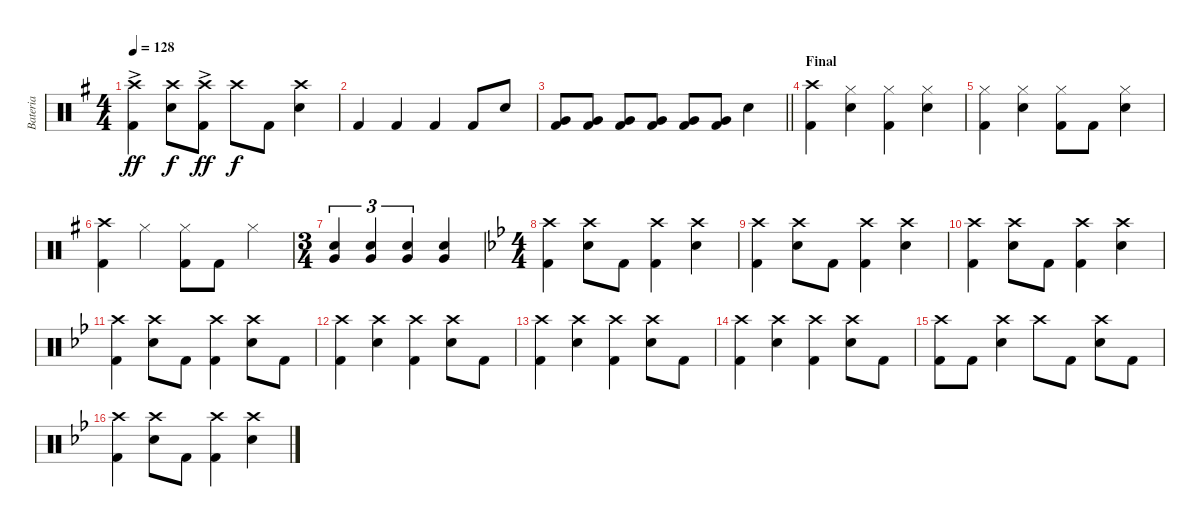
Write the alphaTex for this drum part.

\track ("Bateria" "Bateria") {instrument percussion}
\staff {score}
\articulation defaults
\ts (4 4)
\tempo 128
\clef neutral
\ks g
("Crash high (hit)"{ac} "Kick (hit) 2").4{dy ff} ("Crash high (hit)" "Snare (hit) 2").8{dy f} ("Crash high (hit)"{ac} "Kick (hit) 2").8{dy ff} "Crash high (hit)".8{dy f} "Kick (hit) 2".8 ("Crash high (hit)" "Snare (hit) 2").4 |
"Kick (hit) 2".4 "Kick (hit) 2".4 "Kick (hit) 2".4 "Kick (hit) 2".8 "Snare (hit) 2".8 |
\barLineRight lightlight
("Very Low Tom (hit)" "Kick (hit) 2").8 ("Very Low Tom (hit)" "Kick (hit) 2").8 ("Very Low Tom (hit)" "Kick (hit) 2").8 ("Very Low Tom (hit)" "Kick (hit) 2").8 ("Very Low Tom (hit)" "Kick (hit) 2").8 ("Very Low Tom (hit)" "Kick (hit) 2").8 "Snare (hit) 2".4 |
\section ("" "Final")
("Crash high (hit)" "Kick (hit) 2").4 ("Hi-Hat (closed)" "Snare (hit) 2").4 ("Hi-Hat (closed)" "Kick (hit) 2").4 ("Hi-Hat (closed)" "Snare (hit) 2").4 |
("Hi-Hat (closed)" "Kick (hit) 2").4 ("Hi-Hat (closed)" "Snare (hit) 2").4 ("Hi-Hat (closed)" "Kick (hit) 2").8 "Kick (hit) 2".8 ("Hi-Hat (closed)" "Snare (hit) 2").4 |
("Crash high (hit)" "Kick (hit) 2").4 "Hi-Hat (closed)".4 ("Hi-Hat (closed)" "Kick (hit) 2").8 "Kick (hit) 2".8 "Hi-Hat (closed)".4 |
\ts (3 4)
("Snare (hit) 2" "Very Low Tom (hit)").4{tu (3 2)} ("Snare (hit) 2" "Very Low Tom (hit)").4{tu (3 2)} ("Snare (hit) 2" "Very Low Tom (hit)").4{tu (3 2)} ("Snare (hit) 2" "Very Low Tom (hit)").4 |
\ts (4 4)
\ks bb
("Crash high (hit)" "Kick (hit) 2").4 ("Crash high (hit)" "Snare (hit) 2").8 "Kick (hit) 2".8 ("Crash high (hit)" "Kick (hit) 2").4 ("Crash high (hit)" "Snare (hit) 2").4 |
("Crash high (hit)" "Kick (hit) 2").4 ("Crash high (hit)" "Snare (hit) 2").8 "Kick (hit) 2".8 ("Crash high (hit)" "Kick (hit) 2").4 ("Crash high (hit)" "Snare (hit) 2").4 |
("Crash high (hit)" "Kick (hit) 2").4 ("Crash high (hit)" "Snare (hit) 2").8 "Kick (hit) 2".8 ("Crash high (hit)" "Kick (hit) 2").4 ("Crash high (hit)" "Snare (hit) 2").4 |
("Crash high (hit)" "Kick (hit) 2").4 ("Crash high (hit)" "Snare (hit) 2").8 "Kick (hit) 2".8 ("Crash high (hit)" "Kick (hit) 2").4 ("Crash high (hit)" "Snare (hit) 2").8 "Kick (hit) 2".8 |
("Crash high (hit)" "Kick (hit) 2").4 ("Crash high (hit)" "Snare (hit) 2").4 ("Crash high (hit)" "Kick (hit) 2").4 ("Crash high (hit)" "Snare (hit) 2").8 "Kick (hit) 2".8 |
("Crash high (hit)" "Kick (hit) 2").4 ("Crash high (hit)" "Snare (hit) 2").4 ("Crash high (hit)" "Kick (hit) 2").4 ("Crash high (hit)" "Snare (hit) 2").8 "Kick (hit) 2".8 |
("Crash high (hit)" "Kick (hit) 2").4 ("Crash high (hit)" "Snare (hit) 2").4 ("Crash high (hit)" "Kick (hit) 2").4 ("Crash high (hit)" "Snare (hit) 2").8 "Kick (hit) 2".8 |
("Crash high (hit)" "Kick (hit) 2").8 "Kick (hit) 2".8 ("Crash high (hit)" "Snare (hit) 2").4 "Crash high (hit)".8 "Kick (hit) 2".8 ("Crash high (hit)" "Snare (hit) 2").8 "Kick (hit) 2".8 |
("Crash high (hit)" "Kick (hit) 2").4 ("Crash high (hit)" "Snare (hit) 2").8 "Kick (hit) 2".8 ("Crash high (hit)" "Kick (hit) 2").4 ("Crash high (hit)" "Snare (hit) 2").4
